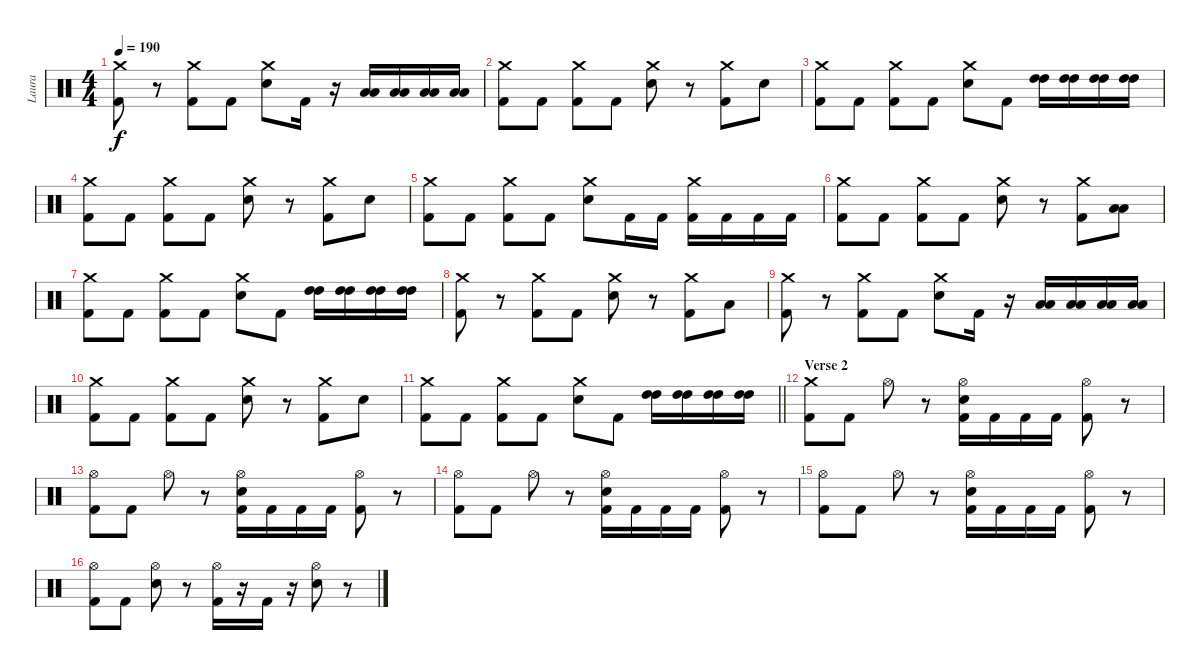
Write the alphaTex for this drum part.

\track ("Laura" "Laura") {instrument percussion}
\staff {score}
\articulation defaults
\ts (4 4)
\tempo 190
\clef neutral
\ks c
("Crash medium (hit)" "Kick (hit) 2").8{dy f} r.8 ("Crash medium (hit)" "Kick (hit) 2").8 "Kick (hit) 2".8 ("Crash medium (hit)" "Electric Snare (hit)").8 "Kick (hit) 2".16 r.16 ("Low Floor Tom (hit)" "Low Floor Tom (hit)").16 ("Low Floor Tom (hit)" "Low Floor Tom (hit)").16 ("Low Floor Tom (hit)" "Low Floor Tom (hit)").16 ("Low Floor Tom (hit)" "Low Floor Tom (hit)").16 |
("Crash medium (hit)" "Kick (hit) 2").8 "Kick (hit) 2".8 ("Crash medium (hit)" "Kick (hit) 2").8 "Kick (hit) 2".8 ("Crash medium (hit)" "Electric Snare (hit)").8 r.8 ("Crash medium (hit)" "Kick (hit) 2").8 "Electric Snare (hit)".8 |
("Crash medium (hit)" "Kick (hit) 2").8 "Kick (hit) 2".8 ("Crash medium (hit)" "Kick (hit) 2").8 "Kick (hit) 2".8 ("Crash medium (hit)" "Electric Snare (hit)").8 "Kick (hit) 2".8 ("High Tom (hit)" "High Tom (hit)").16 ("High Tom (hit)" "High Tom (hit)").16 ("High Tom (hit)" "High Tom (hit)").16 ("High Tom (hit)" "High Tom (hit)").16 |
("Crash medium (hit)" "Kick (hit) 2").8 "Kick (hit) 2".8 ("Crash medium (hit)" "Kick (hit) 2").8 "Kick (hit) 2".8 ("Crash medium (hit)" "Electric Snare (hit)").8 r.8 ("Crash medium (hit)" "Kick (hit) 2").8 "Electric Snare (hit)".8 |
("Crash medium (hit)" "Kick (hit) 2").8 "Kick (hit) 2".8 ("Crash medium (hit)" "Kick (hit) 2").8 "Kick (hit) 2".8 ("Crash medium (hit)" "Electric Snare (hit)").8 "Kick (hit) 2".16 "Kick (hit) 2".16 ("Crash medium (hit)" "Kick (hit) 2").16 "Kick (hit) 2".16 "Kick (hit) 2".16 "Kick (hit) 2".16 |
("Crash medium (hit)" "Kick (hit) 2").8 "Kick (hit) 2".8 ("Crash medium (hit)" "Kick (hit) 2").8 "Kick (hit) 2".8 ("Crash medium (hit)" "Electric Snare (hit)").8 r.8 ("Crash medium (hit)" "Kick (hit) 2").8 ("Low Tom (hit)" "Low Tom (hit)").8 |
("Crash medium (hit)" "Kick (hit) 2").8 "Kick (hit) 2".8 ("Crash medium (hit)" "Kick (hit) 2").8 "Kick (hit) 2".8 ("Crash medium (hit)" "Electric Snare (hit)").8 "Kick (hit) 2".8 ("High Tom (hit)" "High Tom (hit)").16 ("High Tom (hit)" "High Tom (hit)").16 ("High Tom (hit)" "High Tom (hit)").16 ("High Tom (hit)" "High Tom (hit)").16 |
("Crash medium (hit)" "Kick (hit) 2").8 r.8 ("Crash medium (hit)" "Kick (hit) 2").8 "Kick (hit) 2".8 ("Crash medium (hit)" "Electric Snare (hit)").8 r.8 ("Crash medium (hit)" "Kick (hit) 2").8 "Low Tom (hit)".8 |
("Crash medium (hit)" "Kick (hit) 2").8 r.8 ("Crash medium (hit)" "Kick (hit) 2").8 "Kick (hit) 2".8 ("Crash medium (hit)" "Electric Snare (hit)").8 "Kick (hit) 2".16 r.16 ("Low Floor Tom (hit)" "Low Floor Tom (hit)").16 ("Low Floor Tom (hit)" "Low Floor Tom (hit)").16 ("Low Floor Tom (hit)" "Low Floor Tom (hit)").16 ("Low Floor Tom (hit)" "Low Floor Tom (hit)").16 |
("Crash medium (hit)" "Kick (hit) 2").8 "Kick (hit) 2".8 ("Crash medium (hit)" "Kick (hit) 2").8 "Kick (hit) 2".8 ("Crash medium (hit)" "Electric Snare (hit)").8 r.8 ("Crash medium (hit)" "Kick (hit) 2").8 "Electric Snare (hit)".8 |
\barLineRight lightlight
("Crash medium (hit)" "Kick (hit) 2").8 "Kick (hit) 2".8 ("Crash medium (hit)" "Kick (hit) 2").8 "Kick (hit) 2".8 ("Crash medium (hit)" "Electric Snare (hit)").8 "Kick (hit) 2".8 ("High Tom (hit)" "High Tom (hit)").16 ("High Tom (hit)" "High Tom (hit)").16 ("High Tom (hit)" "High Tom (hit)").16 ("High Tom (hit)" "High Tom (hit)").16 |
\section ("" "Verse 2")
("Crash medium (hit)" "Kick (hit) 2").8 "Kick (hit) 2".8 "Hi-Hat (open)".8 r.8 ("Hi-Hat (open)" "Electric Snare (hit)" "Kick (hit) 2").16 "Kick (hit) 2".16 "Kick (hit) 2".16 "Kick (hit) 2".16 ("Hi-Hat (open)" "Kick (hit) 2").8 r.8 |
("Hi-Hat (open)" "Kick (hit) 2").8 "Kick (hit) 2".8 "Hi-Hat (open)".8 r.8 ("Hi-Hat (open)" "Electric Snare (hit)" "Kick (hit) 2").16 "Kick (hit) 2".16 "Kick (hit) 2".16 "Kick (hit) 2".16 ("Hi-Hat (open)" "Kick (hit) 2").8 r.8 |
("Hi-Hat (open)" "Kick (hit) 2").8 "Kick (hit) 2".8 "Hi-Hat (open)".8 r.8 ("Hi-Hat (open)" "Electric Snare (hit)" "Kick (hit) 2").16 "Kick (hit) 2".16 "Kick (hit) 2".16 "Kick (hit) 2".16 ("Hi-Hat (open)" "Kick (hit) 2").8 r.8 |
("Hi-Hat (open)" "Kick (hit) 2").8 "Kick (hit) 2".8 "Hi-Hat (open)".8 r.8 ("Hi-Hat (open)" "Electric Snare (hit)" "Kick (hit) 2").16 "Kick (hit) 2".16 "Kick (hit) 2".16 "Kick (hit) 2".16 ("Hi-Hat (open)" "Kick (hit) 2").8 r.8 |
("Hi-Hat (open)" "Kick (hit) 2").8 "Kick (hit) 2".8 ("Hi-Hat (open)" "Electric Snare (hit)").8 r.8 ("Hi-Hat (open)" "Kick (hit) 2").16 r.16 "Kick (hit) 2".16 r.16 ("Hi-Hat (open)" "Electric Snare (hit)").8 r.8
